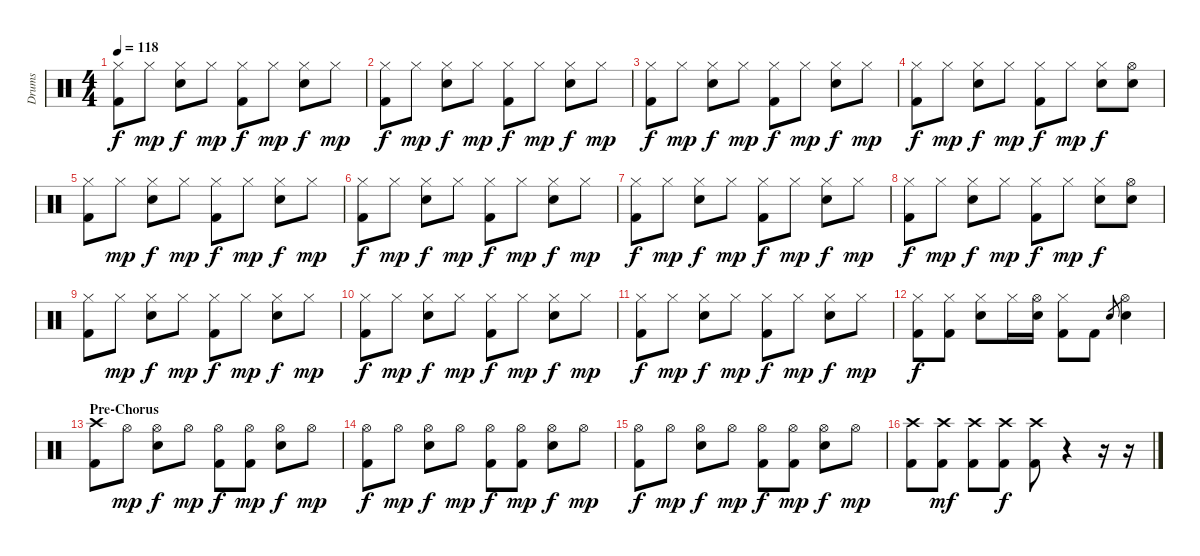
\track ("Drums" "Drums") {instrument percussion}
\staff {score}
\articulation defaults
\ts (4 4)
\tempo 118
\clef neutral
\ks c
("Hi-Hat (closed)" "Kick (hit) 2").8{dy f} "Hi-Hat (closed)".8{dy mp} ("Hi-Hat (closed)" "Snare (hit) 2").8{dy f} "Hi-Hat (closed)".8{dy mp} ("Hi-Hat (closed)" "Kick (hit) 2").8{dy f} "Hi-Hat (closed)".8{dy mp} ("Hi-Hat (closed)" "Snare (hit) 2").8{dy f} "Hi-Hat (closed)".8{dy mp} |
("Hi-Hat (closed)" "Kick (hit) 2").8{dy f} "Hi-Hat (closed)".8{dy mp} ("Hi-Hat (closed)" "Snare (hit) 2").8{dy f} "Hi-Hat (closed)".8{dy mp} ("Hi-Hat (closed)" "Kick (hit) 2").8{dy f} "Hi-Hat (closed)".8{dy mp} ("Hi-Hat (closed)" "Snare (hit) 2").8{dy f} "Hi-Hat (closed)".8{dy mp} |
("Hi-Hat (closed)" "Kick (hit) 2").8{dy f} "Hi-Hat (closed)".8{dy mp} ("Hi-Hat (closed)" "Snare (hit) 2").8{dy f} "Hi-Hat (closed)".8{dy mp} ("Hi-Hat (closed)" "Kick (hit) 2").8{dy f} "Hi-Hat (closed)".8{dy mp} ("Hi-Hat (closed)" "Snare (hit) 2").8{dy f} "Hi-Hat (closed)".8{dy mp} |
("Hi-Hat (closed)" "Kick (hit) 2").8{dy f} "Hi-Hat (closed)".8{dy mp} ("Hi-Hat (closed)" "Snare (hit) 2").8{dy f} "Hi-Hat (closed)".8{dy mp} ("Hi-Hat (closed)" "Kick (hit) 2").8{dy f} "Hi-Hat (closed)".8{dy mp} ("Hi-Hat (closed)" "Snare (hit) 2").8{dy f} ("Hi-Hat (open)" "Snare (hit) 2").8 |
("Hi-Hat (closed)" "Kick (hit) 2").8 "Hi-Hat (closed)".8{dy mp} ("Hi-Hat (closed)" "Snare (hit) 2").8{dy f} "Hi-Hat (closed)".8{dy mp} ("Hi-Hat (closed)" "Kick (hit) 2").8{dy f} "Hi-Hat (closed)".8{dy mp} ("Hi-Hat (closed)" "Snare (hit) 2").8{dy f} "Hi-Hat (closed)".8{dy mp} |
("Hi-Hat (closed)" "Kick (hit) 2").8{dy f} "Hi-Hat (closed)".8{dy mp} ("Hi-Hat (closed)" "Snare (hit) 2").8{dy f} "Hi-Hat (closed)".8{dy mp} ("Hi-Hat (closed)" "Kick (hit) 2").8{dy f} "Hi-Hat (closed)".8{dy mp} ("Hi-Hat (closed)" "Snare (hit) 2").8{dy f} "Hi-Hat (closed)".8{dy mp} |
("Hi-Hat (closed)" "Kick (hit) 2").8{dy f} "Hi-Hat (closed)".8{dy mp} ("Hi-Hat (closed)" "Snare (hit) 2").8{dy f} "Hi-Hat (closed)".8{dy mp} ("Hi-Hat (closed)" "Kick (hit) 2").8{dy f} "Hi-Hat (closed)".8{dy mp} ("Hi-Hat (closed)" "Snare (hit) 2").8{dy f} "Hi-Hat (closed)".8{dy mp} |
("Hi-Hat (closed)" "Kick (hit) 2").8{dy f} "Hi-Hat (closed)".8{dy mp} ("Hi-Hat (closed)" "Snare (hit) 2").8{dy f} "Hi-Hat (closed)".8{dy mp} ("Hi-Hat (closed)" "Kick (hit) 2").8{dy f} "Hi-Hat (closed)".8{dy mp} ("Hi-Hat (closed)" "Snare (hit) 2").8{dy f} ("Hi-Hat (open)" "Snare (hit) 2").8 |
("Hi-Hat (closed)" "Kick (hit) 2").8 "Hi-Hat (closed)".8{dy mp} ("Hi-Hat (closed)" "Snare (hit) 2").8{dy f} "Hi-Hat (closed)".8{dy mp} ("Hi-Hat (closed)" "Kick (hit) 2").8{dy f} "Hi-Hat (closed)".8{dy mp} ("Hi-Hat (closed)" "Snare (hit) 2").8{dy f} "Hi-Hat (closed)".8{dy mp} |
("Hi-Hat (closed)" "Kick (hit) 2").8{dy f} "Hi-Hat (closed)".8{dy mp} ("Hi-Hat (closed)" "Snare (hit) 2").8{dy f} "Hi-Hat (closed)".8{dy mp} ("Hi-Hat (closed)" "Kick (hit) 2").8{dy f} "Hi-Hat (closed)".8{dy mp} ("Hi-Hat (closed)" "Snare (hit) 2").8{dy f} "Hi-Hat (closed)".8{dy mp} |
("Hi-Hat (closed)" "Kick (hit) 2").8{dy f} "Hi-Hat (closed)".8{dy mp} ("Hi-Hat (closed)" "Snare (hit) 2").8{dy f} "Hi-Hat (closed)".8{dy mp} ("Hi-Hat (closed)" "Kick (hit) 2").8{dy f} "Hi-Hat (closed)".8{dy mp} ("Hi-Hat (closed)" "Snare (hit) 2").8{dy f} "Hi-Hat (closed)".8{dy mp} |
("Hi-Hat (closed)" "Kick (hit) 2").8{dy f} ("Hi-Hat (closed)" "Kick (hit) 2").8 ("Hi-Hat (closed)" "Snare (hit) 2").8 "Hi-Hat (closed)".16 ("Hi-Hat (open)" "Snare (hit) 2").16 ("Hi-Hat (closed)" "Kick (hit) 2").8 "Kick (hit) 2".8 "Snare (hit) 2".8{gr} ("Hi-Hat (open)" "Snare (hit) 2").4 |
\section ("" "Pre-Chorus")
("Crash high (hit)" "Kick (hit) 2").8 "Hi-Hat (open)".8{dy mp} ("Hi-Hat (open)" "Snare (hit) 2").8{dy f} "Hi-Hat (open)".8{dy mp} ("Hi-Hat (open)" "Kick (hit) 2").8{dy f} ("Hi-Hat (open)" "Kick (hit) 2").8{dy mp} ("Hi-Hat (open)" "Snare (hit) 2").8{dy f} "Hi-Hat (open)".8{dy mp} |
("Hi-Hat (open)" "Kick (hit) 2").8{dy f} "Hi-Hat (open)".8{dy mp} ("Hi-Hat (open)" "Snare (hit) 2").8{dy f} "Hi-Hat (open)".8{dy mp} ("Hi-Hat (open)" "Kick (hit) 2").8{dy f} ("Hi-Hat (open)" "Kick (hit) 2").8{dy mp} ("Hi-Hat (open)" "Snare (hit) 2").8{dy f} "Hi-Hat (open)".8{dy mp} |
("Hi-Hat (open)" "Kick (hit) 2").8{dy f} "Hi-Hat (open)".8{dy mp} ("Hi-Hat (open)" "Snare (hit) 2").8{dy f} "Hi-Hat (open)".8{dy mp} ("Hi-Hat (open)" "Kick (hit) 2").8{dy f} ("Hi-Hat (open)" "Kick (hit) 2").8{dy mp} ("Hi-Hat (open)" "Snare (hit) 2").8{dy f} "Hi-Hat (open)".8{dy mp} |
("Crash high (hit)" "Kick (hit) 2").8 ("Crash high (hit)" "Kick (hit) 2").8{dy mf} ("Crash high (hit)" "Kick (hit) 2").8 ("Crash high (hit)" "Kick (hit) 2").8{dy f} ("Crash high (hit)" "Kick (hit) 2").8 r.4{volume 0} r.16 r.16{volume 13}
